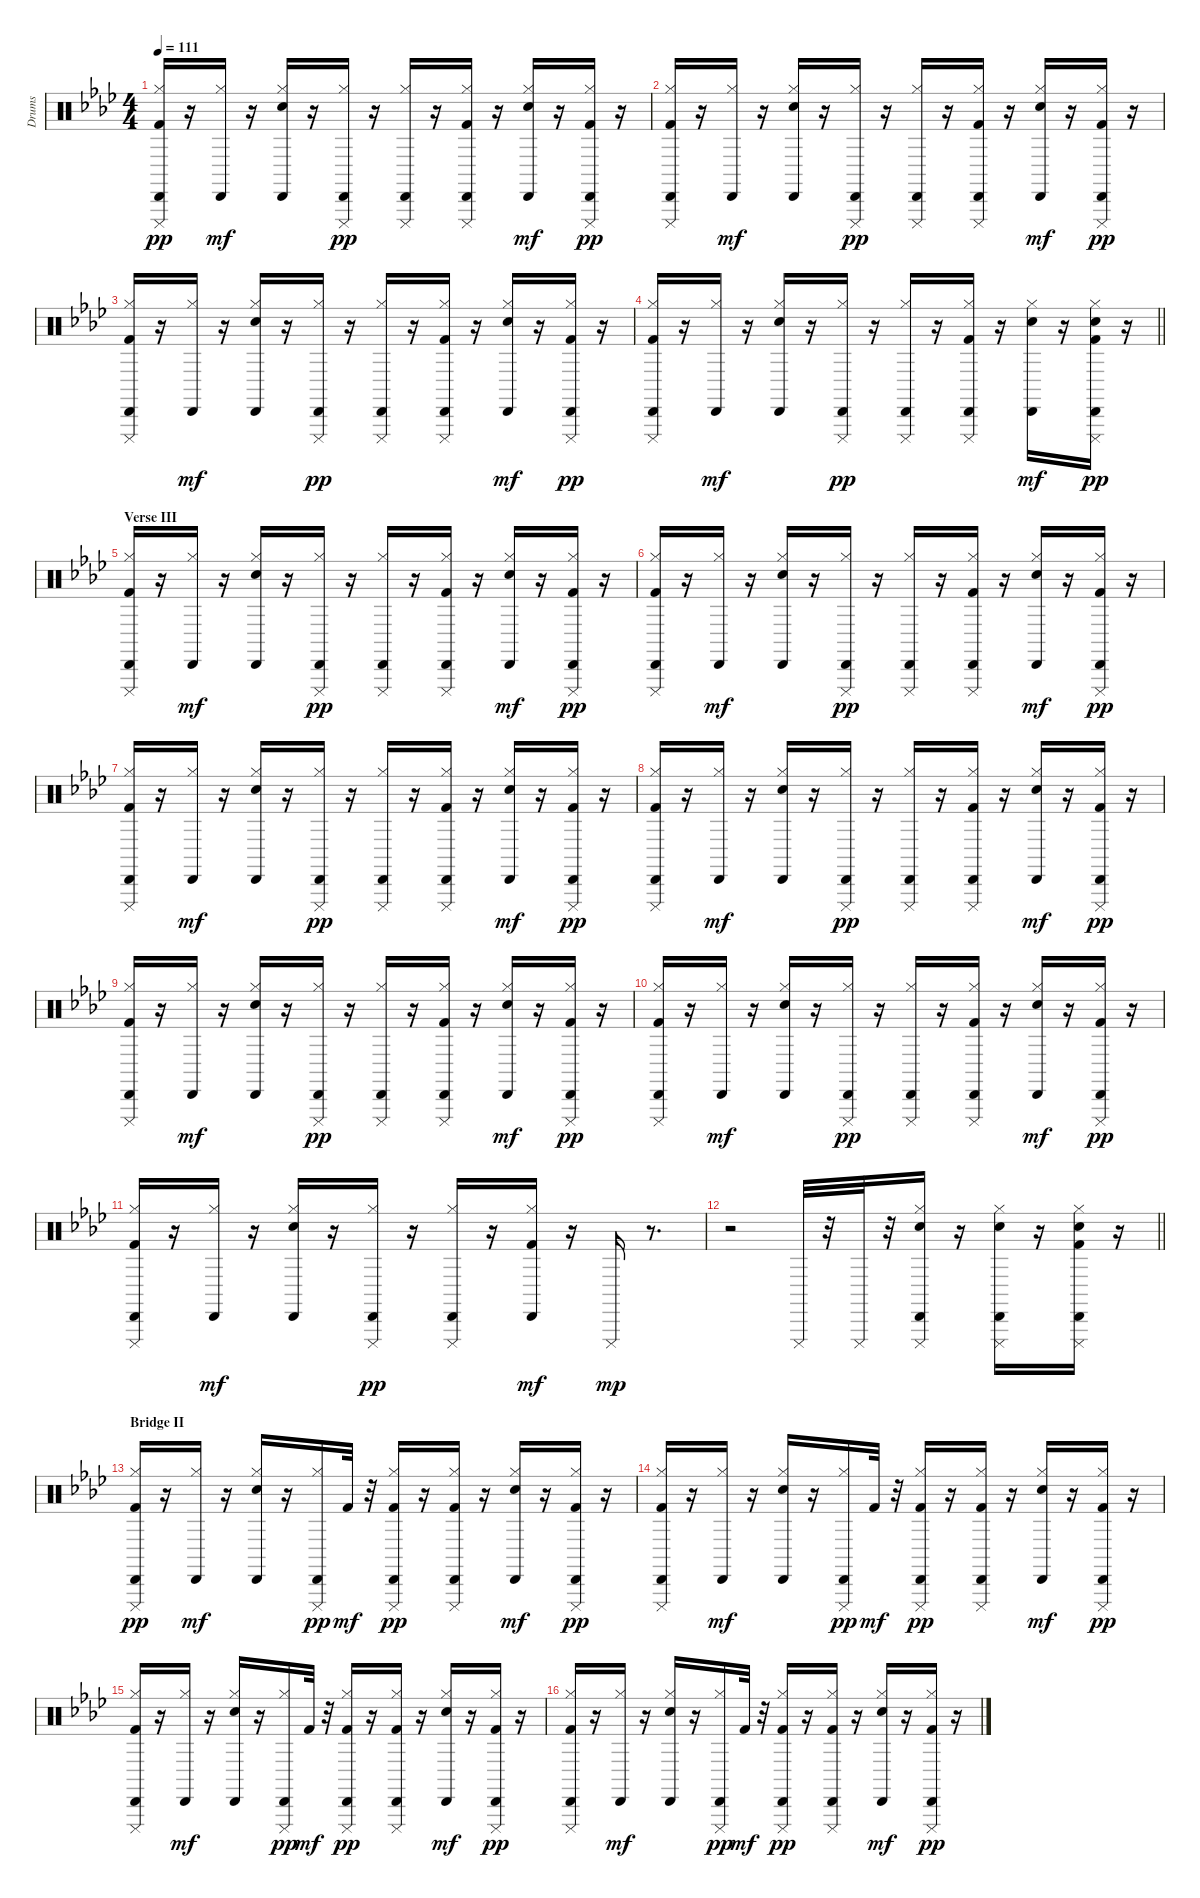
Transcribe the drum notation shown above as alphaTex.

\track ("Drums" "Drums") {instrument percussion}
\staff {score}
\articulation defaults
\ts (4 4)
\tempo 111
\clef neutral
\ks ab
("Kick (hit) 2" "Hi-Hat (closed)" "Cabasa (hit)" "Cuica (mute)").16{dy pp} r.16 ("Hi-Hat (closed)" "Cabasa (hit)").16{dy mf} r.16 ("Electric Snare (hit)" "Hi-Hat (closed)" "Cabasa (hit)").16 r.16 ("Hi-Hat (closed)" "Cabasa (hit)" "Cuica (mute)").16{dy pp} r.16 ("Hi-Hat (closed)" "Cabasa (hit)" "Cuica (mute)").16 r.16 ("Kick (hit) 2" "Hi-Hat (closed)" "Cabasa (hit)" "Cuica (mute)").16 r.16 ("Electric Snare (hit)" "Hi-Hat (closed)" "Cabasa (hit)").16{dy mf} r.16 ("Kick (hit) 2" "Hi-Hat (closed)" "Cabasa (hit)" "Cuica (mute)").16{dy pp} r.16 |
("Kick (hit) 2" "Hi-Hat (closed)" "Cabasa (hit)" "Cuica (mute)").16 r.16 ("Hi-Hat (closed)" "Cabasa (hit)").16{dy mf} r.16 ("Electric Snare (hit)" "Hi-Hat (closed)" "Cabasa (hit)").16 r.16 ("Hi-Hat (closed)" "Cabasa (hit)" "Cuica (mute)").16{dy pp} r.16 ("Hi-Hat (closed)" "Cabasa (hit)" "Cuica (mute)").16 r.16 ("Kick (hit) 2" "Hi-Hat (closed)" "Cabasa (hit)" "Cuica (mute)").16 r.16 ("Electric Snare (hit)" "Hi-Hat (closed)" "Cabasa (hit)").16{dy mf} r.16 ("Kick (hit) 2" "Hi-Hat (closed)" "Cabasa (hit)" "Cuica (mute)").16{dy pp} r.16 |
("Kick (hit) 2" "Hi-Hat (closed)" "Cabasa (hit)" "Cuica (mute)").16 r.16 ("Hi-Hat (closed)" "Cabasa (hit)").16{dy mf} r.16 ("Electric Snare (hit)" "Hi-Hat (closed)" "Cabasa (hit)").16 r.16 ("Hi-Hat (closed)" "Cabasa (hit)" "Cuica (mute)").16{dy pp} r.16 ("Hi-Hat (closed)" "Cabasa (hit)" "Cuica (mute)").16 r.16 ("Kick (hit) 2" "Hi-Hat (closed)" "Cabasa (hit)" "Cuica (mute)").16 r.16 ("Electric Snare (hit)" "Hi-Hat (closed)" "Cabasa (hit)").16{dy mf} r.16 ("Kick (hit) 2" "Hi-Hat (closed)" "Cabasa (hit)" "Cuica (mute)").16{dy pp} r.16 |
\barLineRight lightlight
("Kick (hit) 2" "Hi-Hat (closed)" "Cabasa (hit)" "Cuica (mute)").16 r.16 ("Hi-Hat (closed)" "Cabasa (hit)").16{dy mf} r.16 ("Electric Snare (hit)" "Hi-Hat (closed)" "Cabasa (hit)").16 r.16 ("Hi-Hat (closed)" "Cabasa (hit)" "Cuica (mute)").16{dy pp} r.16 ("Hi-Hat (closed)" "Cabasa (hit)" "Cuica (mute)").16 r.16 ("Kick (hit) 2" "Hi-Hat (closed)" "Cabasa (hit)" "Cuica (mute)").16 r.16 ("Electric Snare (hit)" "Hi-Hat (closed)" "Cabasa (hit)").16{dy mf} r.16 ("Kick (hit) 2" "Electric Snare (hit)" "Hi-Hat (closed)" "Cabasa (hit)" "Cuica (mute)").16{dy pp} r.16 |
\section ("" "Verse III")
("Kick (hit) 2" "Hi-Hat (closed)" "Cabasa (hit)" "Cuica (mute)").16 r.16 ("Hi-Hat (closed)" "Cabasa (hit)").16{dy mf} r.16 ("Electric Snare (hit)" "Hi-Hat (closed)" "Cabasa (hit)").16 r.16 ("Hi-Hat (closed)" "Cabasa (hit)" "Cuica (mute)").16{dy pp} r.16 ("Hi-Hat (closed)" "Cabasa (hit)" "Cuica (mute)").16 r.16 ("Kick (hit) 2" "Hi-Hat (closed)" "Cabasa (hit)" "Cuica (mute)").16 r.16 ("Electric Snare (hit)" "Hi-Hat (closed)" "Cabasa (hit)").16{dy mf} r.16 ("Kick (hit) 2" "Hi-Hat (closed)" "Cabasa (hit)" "Cuica (mute)").16{dy pp} r.16 |
("Kick (hit) 2" "Hi-Hat (closed)" "Cabasa (hit)" "Cuica (mute)").16 r.16 ("Hi-Hat (closed)" "Cabasa (hit)").16{dy mf} r.16 ("Electric Snare (hit)" "Hi-Hat (closed)" "Cabasa (hit)").16 r.16 ("Hi-Hat (closed)" "Cabasa (hit)" "Cuica (mute)").16{dy pp} r.16 ("Hi-Hat (closed)" "Cabasa (hit)" "Cuica (mute)").16 r.16 ("Kick (hit) 2" "Hi-Hat (closed)" "Cabasa (hit)" "Cuica (mute)").16 r.16 ("Electric Snare (hit)" "Hi-Hat (closed)" "Cabasa (hit)").16{dy mf} r.16 ("Kick (hit) 2" "Hi-Hat (closed)" "Cabasa (hit)" "Cuica (mute)").16{dy pp} r.16 |
("Kick (hit) 2" "Hi-Hat (closed)" "Cabasa (hit)" "Cuica (mute)").16 r.16 ("Hi-Hat (closed)" "Cabasa (hit)").16{dy mf} r.16 ("Electric Snare (hit)" "Hi-Hat (closed)" "Cabasa (hit)").16 r.16 ("Hi-Hat (closed)" "Cabasa (hit)" "Cuica (mute)").16{dy pp} r.16 ("Hi-Hat (closed)" "Cabasa (hit)" "Cuica (mute)").16 r.16 ("Kick (hit) 2" "Hi-Hat (closed)" "Cabasa (hit)" "Cuica (mute)").16 r.16 ("Electric Snare (hit)" "Hi-Hat (closed)" "Cabasa (hit)").16{dy mf} r.16 ("Kick (hit) 2" "Hi-Hat (closed)" "Cabasa (hit)" "Cuica (mute)").16{dy pp} r.16 |
("Kick (hit) 2" "Hi-Hat (closed)" "Cabasa (hit)" "Cuica (mute)").16 r.16 ("Hi-Hat (closed)" "Cabasa (hit)").16{dy mf} r.16 ("Electric Snare (hit)" "Hi-Hat (closed)" "Cabasa (hit)").16 r.16 ("Hi-Hat (closed)" "Cabasa (hit)" "Cuica (mute)").16{dy pp} r.16 ("Hi-Hat (closed)" "Cabasa (hit)" "Cuica (mute)").16 r.16 ("Kick (hit) 2" "Hi-Hat (closed)" "Cabasa (hit)" "Cuica (mute)").16 r.16 ("Electric Snare (hit)" "Hi-Hat (closed)" "Cabasa (hit)").16{dy mf} r.16 ("Kick (hit) 2" "Hi-Hat (closed)" "Cabasa (hit)" "Cuica (mute)").16{dy pp} r.16 |
("Kick (hit) 2" "Hi-Hat (closed)" "Cabasa (hit)" "Cuica (mute)").16 r.16 ("Hi-Hat (closed)" "Cabasa (hit)").16{dy mf} r.16 ("Electric Snare (hit)" "Hi-Hat (closed)" "Cabasa (hit)").16 r.16 ("Hi-Hat (closed)" "Cabasa (hit)" "Cuica (mute)").16{dy pp} r.16 ("Hi-Hat (closed)" "Cabasa (hit)" "Cuica (mute)").16 r.16 ("Kick (hit) 2" "Hi-Hat (closed)" "Cabasa (hit)" "Cuica (mute)").16 r.16 ("Electric Snare (hit)" "Hi-Hat (closed)" "Cabasa (hit)").16{dy mf} r.16 ("Kick (hit) 2" "Hi-Hat (closed)" "Cabasa (hit)" "Cuica (mute)").16{dy pp} r.16 |
("Kick (hit) 2" "Hi-Hat (closed)" "Cabasa (hit)" "Cuica (mute)").16 r.16 ("Hi-Hat (closed)" "Cabasa (hit)").16{dy mf} r.16 ("Electric Snare (hit)" "Hi-Hat (closed)" "Cabasa (hit)").16 r.16 ("Hi-Hat (closed)" "Cabasa (hit)" "Cuica (mute)").16{dy pp} r.16 ("Hi-Hat (closed)" "Cabasa (hit)" "Cuica (mute)").16 r.16 ("Kick (hit) 2" "Hi-Hat (closed)" "Cabasa (hit)" "Cuica (mute)").16 r.16 ("Electric Snare (hit)" "Hi-Hat (closed)" "Cabasa (hit)").16{dy mf} r.16 ("Kick (hit) 2" "Hi-Hat (closed)" "Cabasa (hit)" "Cuica (mute)").16{dy pp} r.16 |
("Kick (hit) 2" "Hi-Hat (closed)" "Cabasa (hit)" "Cuica (mute)").16 r.16 ("Hi-Hat (closed)" "Cabasa (hit)").16{dy mf} r.16 ("Electric Snare (hit)" "Hi-Hat (closed)" "Cabasa (hit)").16 r.16 ("Hi-Hat (closed)" "Cabasa (hit)" "Cuica (mute)").16{dy pp} r.16 ("Hi-Hat (closed)" "Cabasa (hit)" "Cuica (mute)").16 r.16 ("Kick (hit) 2" "Hi-Hat (closed)" "Cabasa (hit)").16{dy mf} r.16 "Cuica (mute)".16{dy mp} r.8{d} |
\barLineRight lightlight
r.2 "Cuica (mute)".32 r.32 "Cuica (mute)".32 r.32 ("Electric Snare (hit)" "Hi-Hat (closed)" "Cabasa (hit)" "Cuica (mute)").16 r.16 ("Electric Snare (hit)" "Hi-Hat (closed)" "Cabasa (hit)" "Cuica (mute)").16 r.16 ("Kick (hit) 2" "Electric Snare (hit)" "Hi-Hat (closed)" "Cabasa (hit)" "Cuica (mute)").16 r.16 |
\section ("" "Bridge II")
("Kick (hit) 2" "Hi-Hat (closed)" "Cabasa (hit)" "Cuica (mute)").16{dy pp} r.16 ("Hi-Hat (closed)" "Cabasa (hit)").16{dy mf} r.16 ("Electric Snare (hit)" "Hi-Hat (closed)" "Cabasa (hit)").16 r.16 ("Hi-Hat (closed)" "Cabasa (hit)" "Cuica (mute)").16{dy pp} "Kick (hit) 2".32{dy mf} r.32 ("Kick (hit) 2" "Hi-Hat (closed)" "Cabasa (hit)" "Cuica (mute)").16{dy pp} r.16 ("Kick (hit) 2" "Hi-Hat (closed)" "Cabasa (hit)" "Cuica (mute)").16 r.16 ("Electric Snare (hit)" "Hi-Hat (closed)" "Cabasa (hit)").16{dy mf} r.16 ("Kick (hit) 2" "Hi-Hat (closed)" "Cabasa (hit)" "Cuica (mute)").16{dy pp} r.16 |
("Kick (hit) 2" "Hi-Hat (closed)" "Cabasa (hit)" "Cuica (mute)").16 r.16 ("Hi-Hat (closed)" "Cabasa (hit)").16{dy mf} r.16 ("Electric Snare (hit)" "Hi-Hat (closed)" "Cabasa (hit)").16 r.16 ("Hi-Hat (closed)" "Cabasa (hit)" "Cuica (mute)").16{dy pp} "Kick (hit) 2".32{dy mf} r.32 ("Kick (hit) 2" "Hi-Hat (closed)" "Cabasa (hit)" "Cuica (mute)").16{dy pp} r.16 ("Kick (hit) 2" "Hi-Hat (closed)" "Cabasa (hit)" "Cuica (mute)").16 r.16 ("Electric Snare (hit)" "Hi-Hat (closed)" "Cabasa (hit)").16{dy mf} r.16 ("Kick (hit) 2" "Hi-Hat (closed)" "Cabasa (hit)" "Cuica (mute)").16{dy pp} r.16 |
("Kick (hit) 2" "Hi-Hat (closed)" "Cabasa (hit)" "Cuica (mute)").16 r.16 ("Hi-Hat (closed)" "Cabasa (hit)").16{dy mf} r.16 ("Electric Snare (hit)" "Hi-Hat (closed)" "Cabasa (hit)").16 r.16 ("Hi-Hat (closed)" "Cabasa (hit)" "Cuica (mute)").16{dy pp} "Kick (hit) 2".32{dy mf} r.32 ("Kick (hit) 2" "Hi-Hat (closed)" "Cabasa (hit)" "Cuica (mute)").16{dy pp} r.16 ("Kick (hit) 2" "Hi-Hat (closed)" "Cabasa (hit)" "Cuica (mute)").16 r.16 ("Electric Snare (hit)" "Hi-Hat (closed)" "Cabasa (hit)").16{dy mf} r.16 ("Kick (hit) 2" "Hi-Hat (closed)" "Cabasa (hit)" "Cuica (mute)").16{dy pp} r.16 |
("Kick (hit) 2" "Hi-Hat (closed)" "Cabasa (hit)" "Cuica (mute)").16 r.16 ("Hi-Hat (closed)" "Cabasa (hit)").16{dy mf} r.16 ("Electric Snare (hit)" "Hi-Hat (closed)" "Cabasa (hit)").16 r.16 ("Hi-Hat (closed)" "Cabasa (hit)" "Cuica (mute)").16{dy pp} "Kick (hit) 2".32{dy mf} r.32 ("Kick (hit) 2" "Hi-Hat (closed)" "Cabasa (hit)" "Cuica (mute)").16{dy pp} r.16 ("Kick (hit) 2" "Hi-Hat (closed)" "Cabasa (hit)" "Cuica (mute)").16 r.16 ("Electric Snare (hit)" "Hi-Hat (closed)" "Cabasa (hit)").16{dy mf} r.16 ("Kick (hit) 2" "Hi-Hat (closed)" "Cabasa (hit)" "Cuica (mute)").16{dy pp} r.16
